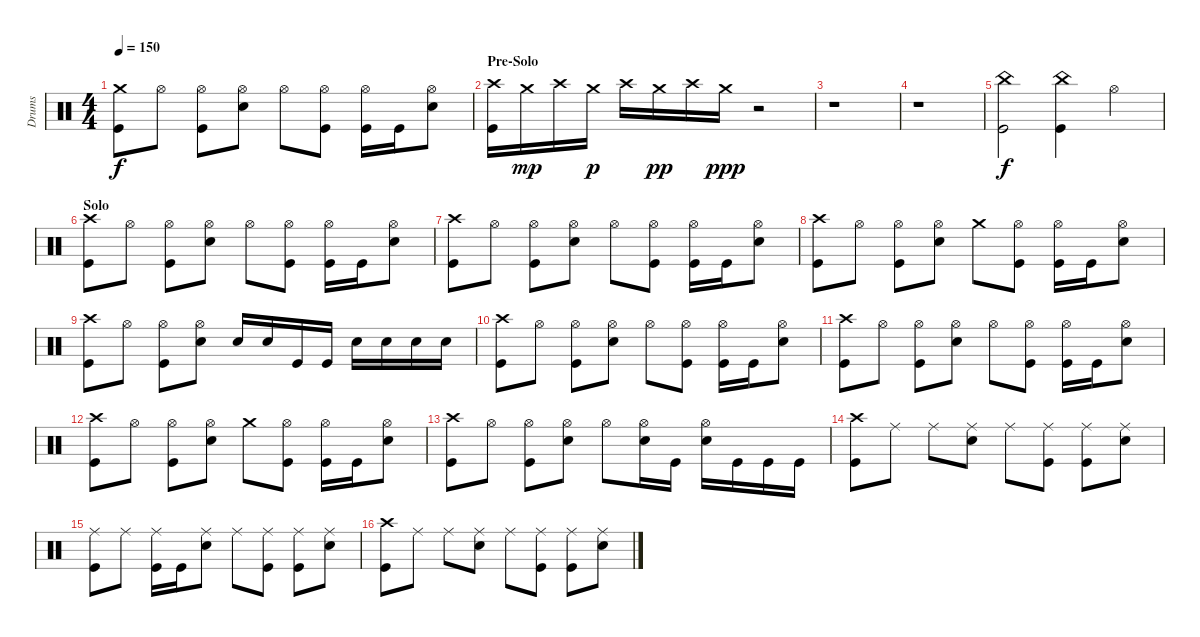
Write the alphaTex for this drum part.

\track ("Drums" "Drums") {instrument percussion}
\staff {score}
\articulation defaults
\ts (4 4)
\tempo 150
\clef neutral
\ks c
("Crash medium (hit)" "Kick (hit)").8{dy f} "Hi-Hat (open)".8 ("Hi-Hat (open)" "Kick (hit)").8 ("Hi-Hat (open)" "Electric Snare (hit)").8 "Hi-Hat (open)".8 ("Hi-Hat (open)" "Kick (hit)").8 ("Hi-Hat (open)" "Kick (hit)").16 "Kick (hit)".16 ("Hi-Hat (open)" "Electric Snare (hit)").8 |
\section ("" "Pre-Solo")
("Crash high (hit)" "Kick (hit)").16 "Crash medium (hit)".16{dy mp} "Crash high (hit)".16 "Crash medium (hit)".16{dy p} "Crash high (hit)".16 "Crash medium (hit)".16{dy pp} "Crash high (hit)".16 "Crash medium (hit)".16{dy ppp} r.2 |
r.1 |
r.1 |
("China (hit)" "Kick (hit)").2{dy f} ("China (hit)" "Kick (hit)").4 "Hi-Hat (open)".4 |
\section ("" "Solo")
("Crash high (hit)" "Kick (hit)").8 "Hi-Hat (open)".8 ("Hi-Hat (open)" "Kick (hit)").8 ("Hi-Hat (open)" "Electric Snare (hit)").8 "Hi-Hat (open)".8 ("Hi-Hat (open)" "Kick (hit)").8 ("Hi-Hat (open)" "Kick (hit)").16 "Kick (hit)".16 ("Hi-Hat (open)" "Electric Snare (hit)").8 |
("Crash high (hit)" "Kick (hit)").8 "Hi-Hat (open)".8 ("Hi-Hat (open)" "Kick (hit)").8 ("Hi-Hat (open)" "Electric Snare (hit)").8 "Hi-Hat (open)".8 ("Hi-Hat (open)" "Kick (hit)").8 ("Hi-Hat (open)" "Kick (hit)").16 "Kick (hit)".16 ("Hi-Hat (open)" "Electric Snare (hit)").8 |
("Crash high (hit)" "Kick (hit)").8 "Hi-Hat (open)".8 ("Hi-Hat (open)" "Kick (hit)").8 ("Hi-Hat (open)" "Electric Snare (hit)").8 "Crash medium (hit)".8 ("Hi-Hat (open)" "Kick (hit)").8 ("Hi-Hat (open)" "Kick (hit)").16 "Kick (hit)".16 ("Hi-Hat (open)" "Electric Snare (hit)").8 |
("Crash high (hit)" "Kick (hit)").8 "Hi-Hat (open)".8 ("Hi-Hat (open)" "Kick (hit)").8 ("Hi-Hat (open)" "Electric Snare (hit)").8 "Electric Snare (hit)".16 "Electric Snare (hit)".16 "Kick (hit)".16 "Kick (hit)".16 "Electric Snare (hit)".16 "Electric Snare (hit)".16 "Electric Snare (hit)".16 "Electric Snare (hit)".16 |
("Crash high (hit)" "Kick (hit)").8 "Hi-Hat (open)".8 ("Hi-Hat (open)" "Kick (hit)").8 ("Hi-Hat (open)" "Electric Snare (hit)").8 "Hi-Hat (open)".8 ("Hi-Hat (open)" "Kick (hit)").8 ("Hi-Hat (open)" "Kick (hit)").16 "Kick (hit)".16 ("Hi-Hat (open)" "Electric Snare (hit)").8 |
("Crash high (hit)" "Kick (hit)").8 "Hi-Hat (open)".8 ("Hi-Hat (open)" "Kick (hit)").8 ("Hi-Hat (open)" "Electric Snare (hit)").8 "Hi-Hat (open)".8 ("Hi-Hat (open)" "Kick (hit)").8 ("Hi-Hat (open)" "Kick (hit)").16 "Kick (hit)".16 ("Hi-Hat (open)" "Electric Snare (hit)").8 |
("Crash high (hit)" "Kick (hit)").8 "Hi-Hat (open)".8 ("Hi-Hat (open)" "Kick (hit)").8 ("Hi-Hat (open)" "Electric Snare (hit)").8 "Crash medium (hit)".8 ("Hi-Hat (open)" "Kick (hit)").8 ("Hi-Hat (open)" "Kick (hit)").16 "Kick (hit)".16 ("Hi-Hat (open)" "Electric Snare (hit)").8 |
("Crash high (hit)" "Kick (hit)").8 "Hi-Hat (open)".8 ("Hi-Hat (open)" "Kick (hit)").8 ("Hi-Hat (open)" "Electric Snare (hit)").8 "Hi-Hat (open)".8 ("Hi-Hat (open)" "Electric Snare (hit)").16 "Kick (hit)".16 ("Hi-Hat (open)" "Electric Snare (hit)").16 "Kick (hit)".16 "Kick (hit)".16 "Kick (hit)".16 |
("Crash high (hit)" "Kick (hit)").8 "Ride (middle)".8 "Ride (middle)".8 ("Ride (middle)" "Electric Snare (hit)").8 "Ride (middle)".8 ("Ride (middle)" "Kick (hit)").8 ("Ride (middle)" "Kick (hit)").8 ("Ride (middle)" "Electric Snare (hit)").8 |
("Ride (middle)" "Kick (hit)").8 "Ride (middle)".8 ("Ride (middle)" "Kick (hit)").16 "Kick (hit)".16 ("Ride (middle)" "Electric Snare (hit)").8 "Ride (middle)".8 ("Ride (middle)" "Kick (hit)").8 ("Ride (middle)" "Kick (hit)").8 ("Ride (middle)" "Electric Snare (hit)").8 |
("Crash high (hit)" "Kick (hit)").8 "Ride (middle)".8 "Ride (middle)".8 ("Ride (middle)" "Electric Snare (hit)").8 "Ride (middle)".8 ("Ride (middle)" "Kick (hit)").8 ("Ride (middle)" "Kick (hit)").8 ("Ride (middle)" "Electric Snare (hit)").8
